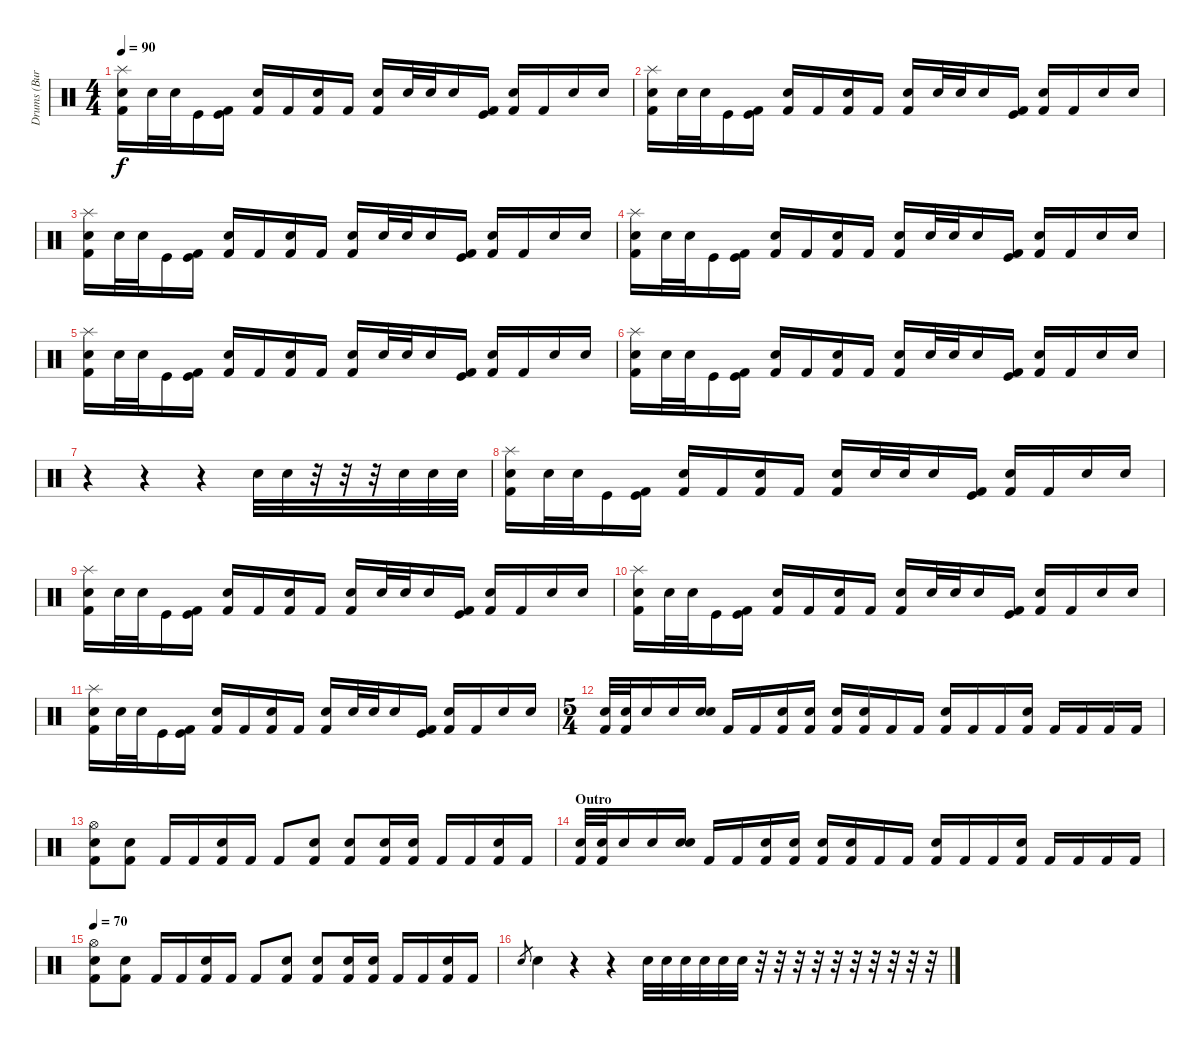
\track ("Drums (Burnz)" "Drums (Bur") {instrument percussion}
\staff {score}
\articulation defaults
\ts (4 4)
\tempo 90
\clef neutral
\ks c
("Splash (hit)" "Kick (hit) 2" "Electric Snare (hit)").16{dy f} "Electric Snare (hit)".32 "Electric Snare (hit)".32 "Kick (hit)".16 ("Kick (hit)" "Kick (hit) 2").16 ("Electric Snare (hit)" "Kick (hit) 2").16 "Kick (hit) 2".16 ("Electric Snare (hit)" "Kick (hit) 2").16 "Kick (hit) 2".16 ("Kick (hit) 2" "Electric Snare (hit)").16 "Electric Snare (hit)".32 "Electric Snare (hit)".32 "Snare (hit) 2".16 ("Kick (hit)" "Kick (hit) 2").16 ("Electric Snare (hit)" "Kick (hit) 2").16 "Kick (hit) 2".16 "Electric Snare (hit)".16 "Electric Snare (hit)".16 |
("Splash (hit)" "Kick (hit) 2" "Electric Snare (hit)").16 "Electric Snare (hit)".32 "Electric Snare (hit)".32 "Kick (hit)".16 ("Kick (hit)" "Kick (hit) 2").16 ("Electric Snare (hit)" "Kick (hit) 2").16 "Kick (hit) 2".16 ("Electric Snare (hit)" "Kick (hit) 2").16 "Kick (hit) 2".16 ("Kick (hit) 2" "Electric Snare (hit)").16 "Electric Snare (hit)".32 "Electric Snare (hit)".32 "Snare (hit) 2".16 ("Kick (hit)" "Kick (hit) 2").16 ("Electric Snare (hit)" "Kick (hit) 2").16 "Kick (hit) 2".16 "Electric Snare (hit)".16 "Electric Snare (hit)".16 |
("Splash (hit)" "Kick (hit) 2" "Electric Snare (hit)").16 "Electric Snare (hit)".32 "Electric Snare (hit)".32 "Kick (hit)".16 ("Kick (hit)" "Kick (hit) 2").16 ("Electric Snare (hit)" "Kick (hit) 2").16 "Kick (hit) 2".16 ("Electric Snare (hit)" "Kick (hit) 2").16 "Kick (hit) 2".16 ("Kick (hit) 2" "Electric Snare (hit)").16 "Electric Snare (hit)".32 "Electric Snare (hit)".32 "Snare (hit) 2".16 ("Kick (hit)" "Kick (hit) 2").16 ("Electric Snare (hit)" "Kick (hit) 2").16 "Kick (hit) 2".16 "Electric Snare (hit)".16 "Electric Snare (hit)".16 |
("Splash (hit)" "Kick (hit) 2" "Electric Snare (hit)").16 "Electric Snare (hit)".32 "Electric Snare (hit)".32 "Kick (hit)".16 ("Kick (hit)" "Kick (hit) 2").16 ("Electric Snare (hit)" "Kick (hit) 2").16 "Kick (hit) 2".16 ("Electric Snare (hit)" "Kick (hit) 2").16 "Kick (hit) 2".16 ("Kick (hit) 2" "Electric Snare (hit)").16 "Electric Snare (hit)".32 "Electric Snare (hit)".32 "Snare (hit) 2".16 ("Kick (hit)" "Kick (hit) 2").16 ("Electric Snare (hit)" "Kick (hit) 2").16 "Kick (hit) 2".16 "Electric Snare (hit)".16 "Electric Snare (hit)".16 |
("Splash (hit)" "Kick (hit) 2" "Electric Snare (hit)").16 "Electric Snare (hit)".32 "Electric Snare (hit)".32 "Kick (hit)".16 ("Kick (hit)" "Kick (hit) 2").16 ("Electric Snare (hit)" "Kick (hit) 2").16 "Kick (hit) 2".16 ("Electric Snare (hit)" "Kick (hit) 2").16 "Kick (hit) 2".16 ("Kick (hit) 2" "Electric Snare (hit)").16 "Electric Snare (hit)".32 "Electric Snare (hit)".32 "Snare (hit) 2".16 ("Kick (hit)" "Kick (hit) 2").16 ("Electric Snare (hit)" "Kick (hit) 2").16 "Kick (hit) 2".16 "Electric Snare (hit)".16 "Electric Snare (hit)".16 |
("Splash (hit)" "Kick (hit) 2" "Electric Snare (hit)").16 "Electric Snare (hit)".32 "Electric Snare (hit)".32 "Kick (hit)".16 ("Kick (hit)" "Kick (hit) 2").16 ("Electric Snare (hit)" "Kick (hit) 2").16 "Kick (hit) 2".16 ("Electric Snare (hit)" "Kick (hit) 2").16 "Kick (hit) 2".16 ("Kick (hit) 2" "Electric Snare (hit)").16 "Electric Snare (hit)".32 "Electric Snare (hit)".32 "Snare (hit) 2".16 ("Kick (hit)" "Kick (hit) 2").16 ("Electric Snare (hit)" "Kick (hit) 2").16 "Kick (hit) 2".16 "Electric Snare (hit)".16 "Electric Snare (hit)".16 |
r.4 r.4 r.4 "Electric Snare (hit)".32 "Electric Snare (hit)".32 r.32 r.32 r.32 "Electric Snare (hit)".32 "Electric Snare (hit)".32 "Electric Snare (hit)".32 |
("Splash (hit)" "Kick (hit) 2" "Electric Snare (hit)").16 "Electric Snare (hit)".32 "Electric Snare (hit)".32 "Kick (hit)".16 ("Kick (hit)" "Kick (hit) 2").16 ("Electric Snare (hit)" "Kick (hit) 2").16 "Kick (hit) 2".16 ("Electric Snare (hit)" "Kick (hit) 2").16 "Kick (hit) 2".16 ("Kick (hit) 2" "Electric Snare (hit)").16 "Electric Snare (hit)".32 "Electric Snare (hit)".32 "Snare (hit) 2".16 ("Kick (hit)" "Kick (hit) 2").16 ("Electric Snare (hit)" "Kick (hit) 2").16 "Kick (hit) 2".16 "Electric Snare (hit)".16 "Electric Snare (hit)".16 |
("Splash (hit)" "Kick (hit) 2" "Electric Snare (hit)").16 "Electric Snare (hit)".32 "Electric Snare (hit)".32 "Kick (hit)".16 ("Kick (hit)" "Kick (hit) 2").16 ("Electric Snare (hit)" "Kick (hit) 2").16 "Kick (hit) 2".16 ("Electric Snare (hit)" "Kick (hit) 2").16 "Kick (hit) 2".16 ("Kick (hit) 2" "Electric Snare (hit)").16 "Electric Snare (hit)".32 "Electric Snare (hit)".32 "Snare (hit) 2".16 ("Kick (hit)" "Kick (hit) 2").16 ("Electric Snare (hit)" "Kick (hit) 2").16 "Kick (hit) 2".16 "Electric Snare (hit)".16 "Electric Snare (hit)".16 |
("Splash (hit)" "Kick (hit) 2" "Electric Snare (hit)").16 "Electric Snare (hit)".32 "Electric Snare (hit)".32 "Kick (hit)".16 ("Kick (hit)" "Kick (hit) 2").16 ("Electric Snare (hit)" "Kick (hit) 2").16 "Kick (hit) 2".16 ("Electric Snare (hit)" "Kick (hit) 2").16 "Kick (hit) 2".16 ("Kick (hit) 2" "Electric Snare (hit)").16 "Electric Snare (hit)".32 "Electric Snare (hit)".32 "Snare (hit) 2".16 ("Kick (hit)" "Kick (hit) 2").16 ("Electric Snare (hit)" "Kick (hit) 2").16 "Kick (hit) 2".16 "Electric Snare (hit)".16 "Electric Snare (hit)".16 |
("Splash (hit)" "Kick (hit) 2" "Electric Snare (hit)").16 "Electric Snare (hit)".32 "Electric Snare (hit)".32 "Kick (hit)".16 ("Kick (hit)" "Kick (hit) 2").16 ("Electric Snare (hit)" "Kick (hit) 2").16 "Kick (hit) 2".16 ("Electric Snare (hit)" "Kick (hit) 2").16 "Kick (hit) 2".16 ("Kick (hit) 2" "Electric Snare (hit)").16 "Electric Snare (hit)".32 "Electric Snare (hit)".32 "Snare (hit) 2".16 ("Kick (hit)" "Kick (hit) 2").16 ("Electric Snare (hit)" "Kick (hit) 2").16 "Kick (hit) 2".16 "Electric Snare (hit)".16 "Electric Snare (hit)".16 |
\ts (5 4)
("Electric Snare (hit)" "Kick (hit) 2").32 ("Electric Snare (hit)" "Kick (hit) 2").32 "Electric Snare (hit)".16 "Electric Snare (hit)".16 ("Electric Snare (hit)" "Electric Snare (hit)").16 "Kick (hit) 2".16 "Kick (hit) 2".16 ("Electric Snare (hit)" "Kick (hit) 2").16 ("Electric Snare (hit)" "Kick (hit) 2").16 ("Electric Snare (hit)" "Kick (hit) 2").16 ("Electric Snare (hit)" "Kick (hit) 2").16 "Kick (hit) 2".16 "Kick (hit) 2".16 ("Electric Snare (hit)" "Kick (hit) 2").16 "Kick (hit) 2".16 "Kick (hit) 2".16 ("Electric Snare (hit)" "Kick (hit) 2").16 "Kick (hit) 2".16 "Kick (hit) 2".16 "Kick (hit) 2".16 "Kick (hit) 2".16 |
("Hi-Hat (open)" "Electric Snare (hit)" "Kick (hit) 2").8 ("Electric Snare (hit)" "Kick (hit) 2").8 "Kick (hit) 2".16 "Kick (hit) 2".16 ("Electric Snare (hit)" "Kick (hit) 2").16 "Kick (hit) 2".16 "Kick (hit) 2".8 ("Electric Snare (hit)" "Kick (hit) 2").8 ("Electric Snare (hit)" "Kick (hit) 2").8 ("Electric Snare (hit)" "Kick (hit) 2").16 ("Electric Snare (hit)" "Kick (hit) 2").16 "Kick (hit) 2".16 "Kick (hit) 2".16 ("Electric Snare (hit)" "Kick (hit) 2").16 "Kick (hit) 2".16 |
\section ("" "Outro")
("Electric Snare (hit)" "Kick (hit) 2").32 ("Electric Snare (hit)" "Kick (hit) 2").32 "Electric Snare (hit)".16 "Electric Snare (hit)".16 ("Electric Snare (hit)" "Electric Snare (hit)").16 "Kick (hit) 2".16 "Kick (hit) 2".16 ("Electric Snare (hit)" "Kick (hit) 2").16 ("Electric Snare (hit)" "Kick (hit) 2").16 ("Electric Snare (hit)" "Kick (hit) 2").16 ("Electric Snare (hit)" "Kick (hit) 2").16 "Kick (hit) 2".16 "Kick (hit) 2".16 ("Electric Snare (hit)" "Kick (hit) 2").16 "Kick (hit) 2".16 "Kick (hit) 2".16 ("Electric Snare (hit)" "Kick (hit) 2").16 "Kick (hit) 2".16 "Kick (hit) 2".16 "Kick (hit) 2".16 "Kick (hit) 2".16 |
\tempo 70
("Hi-Hat (open)" "Electric Snare (hit)" "Kick (hit) 2").8 ("Electric Snare (hit)" "Kick (hit) 2").8 "Kick (hit) 2".16 "Kick (hit) 2".16 ("Electric Snare (hit)" "Kick (hit) 2").16 "Kick (hit) 2".16 "Kick (hit) 2".8 ("Electric Snare (hit)" "Kick (hit) 2").8 ("Electric Snare (hit)" "Kick (hit) 2").8 ("Electric Snare (hit)" "Kick (hit) 2").16 ("Electric Snare (hit)" "Kick (hit) 2").16 "Kick (hit) 2".16 "Kick (hit) 2".16 ("Electric Snare (hit)" "Kick (hit) 2").16 "Kick (hit) 2".16 |
"Snare (hit) 2".8{gr} "Snare (hit) 2".4 r.4 r.4 "Electric Snare (hit)".32 "Electric Snare (hit)".32 "Electric Snare (hit)".32 "Electric Snare (hit)".32 "Electric Snare (hit)".32 "Electric Snare (hit)".32 r.32 r.32 r.32 r.32 r.32 r.32 r.32 r.32 r.32 r.32
